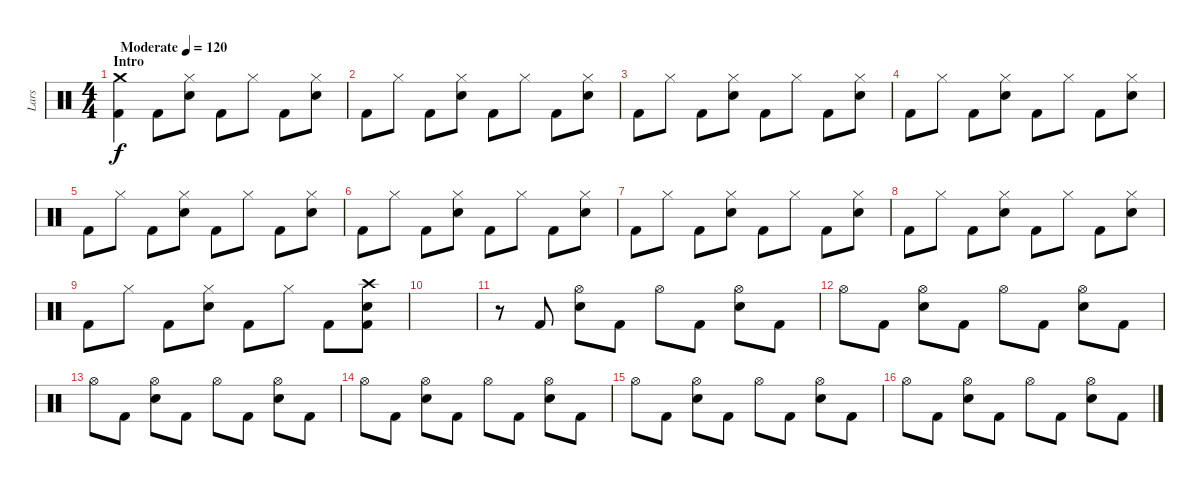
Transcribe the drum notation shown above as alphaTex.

\track ("Lars" "Lars") {instrument percussion}
\staff {score}
\articulation defaults
\ts (4 4)
\section ("" "Intro")
\tempo (120 "Moderate")
\clef neutral
\ks c
("Kick (hit) 2" "Crash medium (hit)").4{dy f} "Kick (hit) 2".8 ("Hi-Hat (closed)" "Snare (hit) 2").8 "Kick (hit) 2".8 "Hi-Hat (closed)".8 "Kick (hit) 2".8 ("Snare (hit) 2" "Hi-Hat (closed)").8 |
"Kick (hit) 2".8 "Hi-Hat (closed)".8 "Kick (hit) 2".8 ("Snare (hit) 2" "Hi-Hat (closed)").8 "Kick (hit) 2".8 "Hi-Hat (closed)".8 "Kick (hit) 2".8 ("Snare (hit) 2" "Hi-Hat (closed)").8 |
"Kick (hit) 2".8 "Hi-Hat (closed)".8 "Kick (hit) 2".8 ("Snare (hit) 2" "Hi-Hat (closed)").8 "Kick (hit) 2".8 "Hi-Hat (closed)".8 "Kick (hit) 2".8 ("Snare (hit) 2" "Hi-Hat (closed)").8 |
"Kick (hit) 2".8 "Hi-Hat (closed)".8 "Kick (hit) 2".8 ("Snare (hit) 2" "Hi-Hat (closed)").8 "Kick (hit) 2".8 "Hi-Hat (closed)".8 "Kick (hit) 2".8 ("Snare (hit) 2" "Hi-Hat (closed)").8 |
"Kick (hit) 2".8 "Hi-Hat (closed)".8 "Kick (hit) 2".8 ("Snare (hit) 2" "Hi-Hat (closed)").8 "Kick (hit) 2".8 "Hi-Hat (closed)".8 "Kick (hit) 2".8 ("Snare (hit) 2" "Hi-Hat (closed)").8 |
"Kick (hit) 2".8 "Hi-Hat (closed)".8 "Kick (hit) 2".8 ("Snare (hit) 2" "Hi-Hat (closed)").8 "Kick (hit) 2".8 "Hi-Hat (closed)".8 "Kick (hit) 2".8 ("Snare (hit) 2" "Hi-Hat (closed)").8 |
"Kick (hit) 2".8 "Hi-Hat (closed)".8 "Kick (hit) 2".8 ("Snare (hit) 2" "Hi-Hat (closed)").8 "Kick (hit) 2".8 "Hi-Hat (closed)".8 "Kick (hit) 2".8 ("Snare (hit) 2" "Hi-Hat (closed)").8 |
"Kick (hit) 2".8 "Hi-Hat (closed)".8 "Kick (hit) 2".8 ("Snare (hit) 2" "Hi-Hat (closed)").8 "Kick (hit) 2".8 "Hi-Hat (closed)".8 "Kick (hit) 2".8 ("Snare (hit) 2" "Hi-Hat (closed)").8 |
"Kick (hit) 2".8 "Hi-Hat (closed)".8 "Kick (hit) 2".8 ("Snare (hit) 2" "Hi-Hat (closed)").8 "Kick (hit) 2".8 "Hi-Hat (closed)".8 "Kick (hit) 2".8 ("Kick (hit) 2" "Snare (hit) 2" "Crash high (hit)").8 |
|
r.8 "Kick (hit) 2".8 ("Snare (hit) 2" "Hi-Hat (open)").8 "Kick (hit) 2".8 "Hi-Hat (open)".8 "Kick (hit) 2".8 ("Snare (hit) 2" "Hi-Hat (open)").8 "Kick (hit) 2".8 |
"Hi-Hat (open)".8 "Kick (hit) 2".8 ("Snare (hit) 2" "Hi-Hat (open)").8 "Kick (hit) 2".8 "Hi-Hat (open)".8 "Kick (hit) 2".8 ("Snare (hit) 2" "Hi-Hat (open)").8 "Kick (hit) 2".8 |
"Hi-Hat (open)".8 "Kick (hit) 2".8 ("Snare (hit) 2" "Hi-Hat (open)").8 "Kick (hit) 2".8 "Hi-Hat (open)".8 "Kick (hit) 2".8 ("Snare (hit) 2" "Hi-Hat (open)").8 "Kick (hit) 2".8 |
"Hi-Hat (open)".8 "Kick (hit) 2".8 ("Snare (hit) 2" "Hi-Hat (open)").8 "Kick (hit) 2".8 "Hi-Hat (open)".8 "Kick (hit) 2".8 ("Snare (hit) 2" "Hi-Hat (open)").8 "Kick (hit) 2".8 |
"Hi-Hat (open)".8 "Kick (hit) 2".8 ("Snare (hit) 2" "Hi-Hat (open)").8 "Kick (hit) 2".8 "Hi-Hat (open)".8 "Kick (hit) 2".8 ("Snare (hit) 2" "Hi-Hat (open)").8 "Kick (hit) 2".8 |
"Hi-Hat (open)".8 "Kick (hit) 2".8 ("Snare (hit) 2" "Hi-Hat (open)").8 "Kick (hit) 2".8 "Hi-Hat (open)".8 "Kick (hit) 2".8 ("Snare (hit) 2" "Hi-Hat (open)").8 "Kick (hit) 2".8
